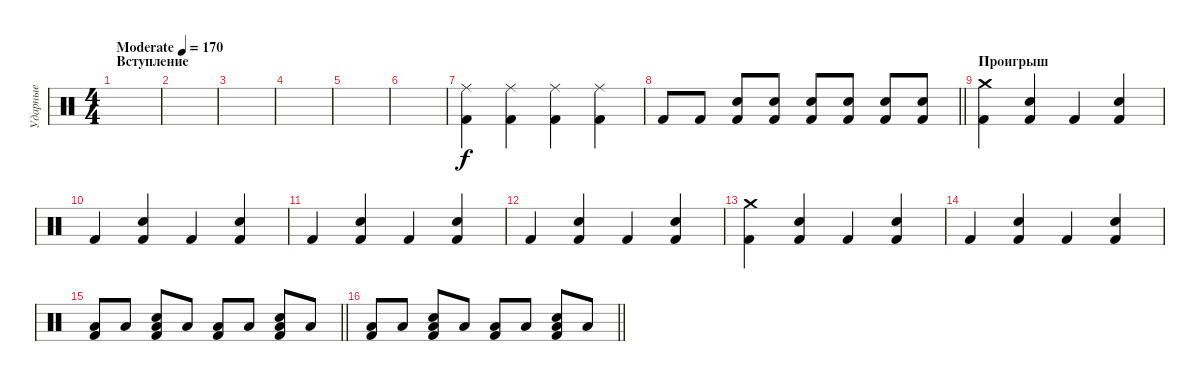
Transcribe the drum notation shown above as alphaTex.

\track ("Ударные" "Ударные") {instrument percussion}
\staff {score}
\articulation defaults
\ts (4 4)
\section ("" "Вступление")
\tempo (170 "Moderate")
\clef neutral
\ks c
|
|
|
|
|
|
("Ride (middle)" "Kick (hit) 2").4 ("Ride (middle)" "Kick (hit) 2").4 ("Ride (middle)" "Kick (hit) 2").4 ("Ride (middle)" "Kick (hit) 2").4 |
\barLineRight lightlight "Kick (hit) 2".8 "Kick (hit) 2".8
("Kick (hit) 2" "Electric Snare (hit)").8 ("Kick (hit) 2" "Electric Snare (hit)").8 ("Kick (hit) 2" "Electric Snare (hit)").8 ("Kick (hit) 2" "Electric Snare (hit)").8 ("Kick (hit) 2" "Electric Snare (hit)").8 ("Kick (hit) 2" "Electric Snare (hit)").8 |
\section ("" "Проигрыш")
("Kick (hit) 2" "Crash medium (hit)").4 ("Kick (hit) 2" "Electric Snare (hit)").4 "Kick (hit) 2".4 ("Kick (hit) 2" "Electric Snare (hit)").4 |
"Kick (hit) 2".4 ("Kick (hit) 2" "Electric Snare (hit)").4 "Kick (hit) 2".4 ("Kick (hit) 2" "Electric Snare (hit)").4 |
"Kick (hit) 2".4 ("Kick (hit) 2" "Electric Snare (hit)").4 "Kick (hit) 2".4 ("Kick (hit) 2" "Electric Snare (hit)").4 |
"Kick (hit) 2".4 ("Kick (hit) 2" "Electric Snare (hit)").4 "Kick (hit) 2".4 ("Kick (hit) 2" "Electric Snare (hit)").4 |
("Kick (hit) 2" "Crash medium (hit)").4 ("Kick (hit) 2" "Electric Snare (hit)").4 "Kick (hit) 2".4 ("Kick (hit) 2" "Electric Snare (hit)").4 |
"Kick (hit) 2".4 ("Kick (hit) 2" "Electric Snare (hit)").4 "Kick (hit) 2".4 ("Kick (hit) 2" "Electric Snare (hit)").4 |
\barLineRight lightlight
("Kick (hit) 2" "Low Floor Tom (hit)").8 "Low Tom (hit)".8 ("Kick (hit) 2" "Low Floor Tom (hit)" "Electric Snare (hit)").8 "Low Tom (hit)".8 ("Kick (hit) 2" "Low Floor Tom (hit)").8 "Low Tom (hit)".8 ("Kick (hit) 2" "Low Floor Tom (hit)" "Electric Snare (hit)").8 "Low Tom (hit)".8 |
\barLineRight lightlight
("Kick (hit) 2" "Low Floor Tom (hit)").8 "Low Tom (hit)".8 ("Kick (hit) 2" "Low Floor Tom (hit)" "Electric Snare (hit)").8 "Low Tom (hit)".8 ("Kick (hit) 2" "Low Floor Tom (hit)").8 "Low Tom (hit)".8 ("Kick (hit) 2" "Low Floor Tom (hit)" "Electric Snare (hit)").8 "Low Tom (hit)".8
